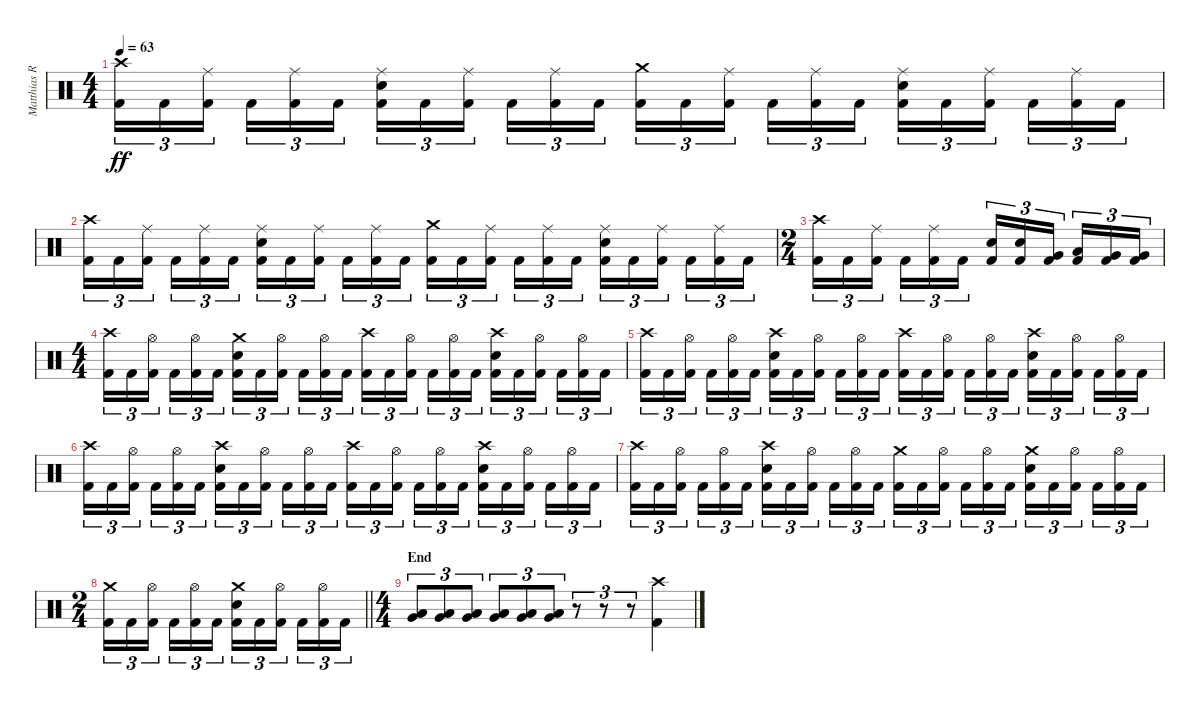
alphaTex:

\track ("Matthias R." "Matthias R") {instrument percussion}
\staff {score}
\articulation defaults
\ts (4 4)
\tempo 63
\clef neutral
\ks c
("Crash high (hit)" "Kick (hit) 2").16{tu (3 2) dy ff} "Kick (hit) 2".16{tu (3 2)} ("Ride (middle)" "Kick (hit) 2").16{tu (3 2) beam splitsecondary} "Kick (hit) 2".16{tu (3 2)} ("Ride (middle)" "Kick (hit) 2").16{tu (3 2)} "Kick (hit) 2".16{tu (3 2)} ("Ride (middle)" "Electric Snare (hit)" "Kick (hit) 2").16{tu (3 2)} "Kick (hit) 2".16{tu (3 2)} ("Ride (middle)" "Kick (hit) 2").16{tu (3 2) beam splitsecondary} "Kick (hit) 2".16{tu (3 2)} ("Ride (middle)" "Kick (hit) 2").16{tu (3 2)} "Kick (hit) 2".16{tu (3 2)} ("Crash medium (hit)" "Kick (hit) 2").16{tu (3 2)} "Kick (hit) 2".16{tu (3 2)} ("Ride (middle)" "Kick (hit) 2").16{tu (3 2) beam splitsecondary} "Kick (hit) 2".16{tu (3 2)} ("Ride (middle)" "Kick (hit) 2").16{tu (3 2)} "Kick (hit) 2".16{tu (3 2)} ("Ride (middle)" "Electric Snare (hit)" "Kick (hit) 2").16{tu (3 2)} "Kick (hit) 2".16{tu (3 2)} ("Ride (middle)" "Kick (hit) 2").16{tu (3 2) beam splitsecondary} "Kick (hit) 2".16{tu (3 2)} ("Ride (middle)" "Kick (hit) 2").16{tu (3 2)} "Kick (hit) 2".16{tu (3 2)} |
("Crash high (hit)" "Kick (hit) 2").16{tu (3 2)} "Kick (hit) 2".16{tu (3 2)} ("Ride (middle)" "Kick (hit) 2").16{tu (3 2) beam splitsecondary} "Kick (hit) 2".16{tu (3 2)} ("Ride (middle)" "Kick (hit) 2").16{tu (3 2)} "Kick (hit) 2".16{tu (3 2)} ("Ride (middle)" "Electric Snare (hit)" "Kick (hit) 2").16{tu (3 2)} "Kick (hit) 2".16{tu (3 2)} ("Ride (middle)" "Kick (hit) 2").16{tu (3 2) beam splitsecondary} "Kick (hit) 2".16{tu (3 2)} ("Ride (middle)" "Kick (hit) 2").16{tu (3 2)} "Kick (hit) 2".16{tu (3 2)} ("Crash medium (hit)" "Kick (hit) 2").16{tu (3 2)} "Kick (hit) 2".16{tu (3 2)} ("Ride (middle)" "Kick (hit) 2").16{tu (3 2) beam splitsecondary} "Kick (hit) 2".16{tu (3 2)} ("Ride (middle)" "Kick (hit) 2").16{tu (3 2)} "Kick (hit) 2".16{tu (3 2)} ("Ride (middle)" "Electric Snare (hit)" "Kick (hit) 2").16{tu (3 2)} "Kick (hit) 2".16{tu (3 2)} ("Ride (middle)" "Kick (hit) 2").16{tu (3 2) beam splitsecondary} "Kick (hit) 2".16{tu (3 2)} ("Ride (middle)" "Kick (hit) 2").16{tu (3 2)} "Kick (hit) 2".16{tu (3 2)} |
\ts (2 4)
("Crash high (hit)" "Kick (hit) 2").16{tu (3 2)} "Kick (hit) 2".16{tu (3 2)} ("Ride (middle)" "Kick (hit) 2").16{tu (3 2) beam splitsecondary} "Kick (hit) 2".16{tu (3 2)} ("Ride (middle)" "Kick (hit) 2").16{tu (3 2)} "Kick (hit) 2".16{tu (3 2)} ("Electric Snare (hit)" "Kick (hit) 2").16{tu (3 2)} ("Electric Snare (hit)" "Kick (hit) 2").16{tu (3 2)} ("Very Low Tom (hit)" "Kick (hit) 2").16{tu (3 2) beam splitsecondary} ("Low Tom (hit)" "Kick (hit) 2").16{tu (3 2)} ("Very Low Tom (hit)" "Kick (hit) 2").16{tu (3 2)} ("Very Low Tom (hit)" "Kick (hit) 2").16{tu (3 2)} |
\ts (4 4)
("Crash high (hit)" "Kick (hit) 2").16{tu (3 2)} "Kick (hit) 2".16{tu (3 2)} ("Hi-Hat (open)" "Kick (hit) 2").16{tu (3 2) beam splitsecondary} "Kick (hit) 2".16{tu (3 2)} ("Hi-Hat (open)" "Kick (hit) 2").16{tu (3 2)} "Kick (hit) 2".16{tu (3 2)} ("Crash medium (hit)" "Electric Snare (hit)" "Kick (hit) 2").16{tu (3 2)} "Kick (hit) 2".16{tu (3 2)} ("Hi-Hat (open)" "Kick (hit) 2").16{tu (3 2) beam splitsecondary} "Kick (hit) 2".16{tu (3 2)} ("Hi-Hat (open)" "Kick (hit) 2").16{tu (3 2)} "Kick (hit) 2".16{tu (3 2)} ("Crash high (hit)" "Kick (hit) 2").16{tu (3 2)} "Kick (hit) 2".16{tu (3 2)} ("Hi-Hat (open)" "Kick (hit) 2").16{tu (3 2) beam splitsecondary} "Kick (hit) 2".16{tu (3 2)} ("Hi-Hat (open)" "Kick (hit) 2").16{tu (3 2)} "Kick (hit) 2".16{tu (3 2)} ("Crash high (hit)" "Electric Snare (hit)" "Kick (hit) 2").16{tu (3 2)} "Kick (hit) 2".16{tu (3 2)} ("Hi-Hat (open)" "Kick (hit) 2").16{tu (3 2) beam splitsecondary} "Kick (hit) 2".16{tu (3 2)} ("Hi-Hat (open)" "Kick (hit) 2").16{tu (3 2)} "Kick (hit) 2".16{tu (3 2)} |
("Crash high (hit)" "Kick (hit) 2").16{tu (3 2)} "Kick (hit) 2".16{tu (3 2)} ("Hi-Hat (open)" "Kick (hit) 2").16{tu (3 2) beam splitsecondary} "Kick (hit) 2".16{tu (3 2)} ("Hi-Hat (open)" "Kick (hit) 2").16{tu (3 2)} "Kick (hit) 2".16{tu (3 2)} ("Crash high (hit)" "Electric Snare (hit)" "Kick (hit) 2").16{tu (3 2)} "Kick (hit) 2".16{tu (3 2)} ("Hi-Hat (open)" "Kick (hit) 2").16{tu (3 2) beam splitsecondary} "Kick (hit) 2".16{tu (3 2)} ("Hi-Hat (open)" "Kick (hit) 2").16{tu (3 2)} "Kick (hit) 2".16{tu (3 2)} ("Crash high (hit)" "Kick (hit) 2").16{tu (3 2)} "Kick (hit) 2".16{tu (3 2)} ("Hi-Hat (open)" "Kick (hit) 2").16{tu (3 2) beam splitsecondary} "Kick (hit) 2".16{tu (3 2)} ("Hi-Hat (open)" "Kick (hit) 2").16{tu (3 2)} "Kick (hit) 2".16{tu (3 2)} ("Crash high (hit)" "Electric Snare (hit)" "Kick (hit) 2").16{tu (3 2)} "Kick (hit) 2".16{tu (3 2)} ("Hi-Hat (open)" "Kick (hit) 2").16{tu (3 2) beam splitsecondary} "Kick (hit) 2".16{tu (3 2)} ("Hi-Hat (open)" "Kick (hit) 2").16{tu (3 2)} "Kick (hit) 2".16{tu (3 2)} |
("Crash high (hit)" "Kick (hit) 2").16{tu (3 2)} "Kick (hit) 2".16{tu (3 2)} ("Hi-Hat (open)" "Kick (hit) 2").16{tu (3 2) beam splitsecondary} "Kick (hit) 2".16{tu (3 2)} ("Hi-Hat (open)" "Kick (hit) 2").16{tu (3 2)} "Kick (hit) 2".16{tu (3 2)} ("Crash high (hit)" "Electric Snare (hit)" "Kick (hit) 2").16{tu (3 2)} "Kick (hit) 2".16{tu (3 2)} ("Hi-Hat (open)" "Kick (hit) 2").16{tu (3 2) beam splitsecondary} "Kick (hit) 2".16{tu (3 2)} ("Hi-Hat (open)" "Kick (hit) 2").16{tu (3 2)} "Kick (hit) 2".16{tu (3 2)} ("Crash high (hit)" "Kick (hit) 2").16{tu (3 2)} "Kick (hit) 2".16{tu (3 2)} ("Hi-Hat (open)" "Kick (hit) 2").16{tu (3 2) beam splitsecondary} "Kick (hit) 2".16{tu (3 2)} ("Hi-Hat (open)" "Kick (hit) 2").16{tu (3 2)} "Kick (hit) 2".16{tu (3 2)} ("Crash high (hit)" "Electric Snare (hit)" "Kick (hit) 2").16{tu (3 2)} "Kick (hit) 2".16{tu (3 2)} ("Hi-Hat (open)" "Kick (hit) 2").16{tu (3 2) beam splitsecondary} "Kick (hit) 2".16{tu (3 2)} ("Hi-Hat (open)" "Kick (hit) 2").16{tu (3 2)} "Kick (hit) 2".16{tu (3 2)} |
("Crash high (hit)" "Kick (hit) 2").16{tu (3 2)} "Kick (hit) 2".16{tu (3 2)} ("Hi-Hat (open)" "Kick (hit) 2").16{tu (3 2) beam splitsecondary} "Kick (hit) 2".16{tu (3 2)} ("Hi-Hat (open)" "Kick (hit) 2").16{tu (3 2)} "Kick (hit) 2".16{tu (3 2)} ("Crash high (hit)" "Electric Snare (hit)" "Kick (hit) 2").16{tu (3 2)} "Kick (hit) 2".16{tu (3 2)} ("Hi-Hat (open)" "Kick (hit) 2").16{tu (3 2) beam splitsecondary} "Kick (hit) 2".16{tu (3 2)} ("Hi-Hat (open)" "Kick (hit) 2").16{tu (3 2)} "Kick (hit) 2".16{tu (3 2)} ("Crash medium (hit)" "Kick (hit) 2").16{tu (3 2)} "Kick (hit) 2".16{tu (3 2)} ("Hi-Hat (open)" "Kick (hit) 2").16{tu (3 2) beam splitsecondary} "Kick (hit) 2".16{tu (3 2)} ("Hi-Hat (open)" "Kick (hit) 2").16{tu (3 2)} "Kick (hit) 2".16{tu (3 2)} ("Crash medium (hit)" "Electric Snare (hit)" "Kick (hit) 2").16{tu (3 2)} "Kick (hit) 2".16{tu (3 2)} ("Hi-Hat (open)" "Kick (hit) 2").16{tu (3 2) beam splitsecondary} "Kick (hit) 2".16{tu (3 2)} ("Hi-Hat (open)" "Kick (hit) 2").16{tu (3 2)} "Kick (hit) 2".16{tu (3 2)} |
\ts (2 4)
\barLineRight lightlight
("Crash medium (hit)" "Kick (hit) 2").16{tu (3 2)} "Kick (hit) 2".16{tu (3 2)} ("Hi-Hat (open)" "Kick (hit) 2").16{tu (3 2) beam splitsecondary} "Kick (hit) 2".16{tu (3 2)} ("Hi-Hat (open)" "Kick (hit) 2").16{tu (3 2)} "Kick (hit) 2".16{tu (3 2)} ("Crash medium (hit)" "Electric Snare (hit)" "Kick (hit) 2").16{tu (3 2)} "Kick (hit) 2".16{tu (3 2)} ("Hi-Hat (open)" "Kick (hit) 2").16{tu (3 2) beam splitsecondary} "Kick (hit) 2".16{tu (3 2)} ("Hi-Hat (open)" "Kick (hit) 2").16{tu (3 2)} "Kick (hit) 2".16{tu (3 2)} |
\ts (4 4)
\section ("" "End")
("Low Tom (hit)" "Very Low Tom (hit)").8{tu (3 2)} ("Low Tom (hit)" "Very Low Tom (hit)").8{tu (3 2)} ("Low Tom (hit)" "Very Low Tom (hit)").8{tu (3 2)} ("Low Floor Tom (hit)" "Very Low Tom (hit)").8{tu (3 2)} ("Low Floor Tom (hit)" "Very Low Tom (hit)").8{tu (3 2)} ("Low Floor Tom (hit)" "Very Low Tom (hit)").8{tu (3 2)} r.8{tu (3 2)} r.8{tu (3 2)} r.8{tu (3 2)} ("Crash high (hit)" "Kick (hit) 2").4
